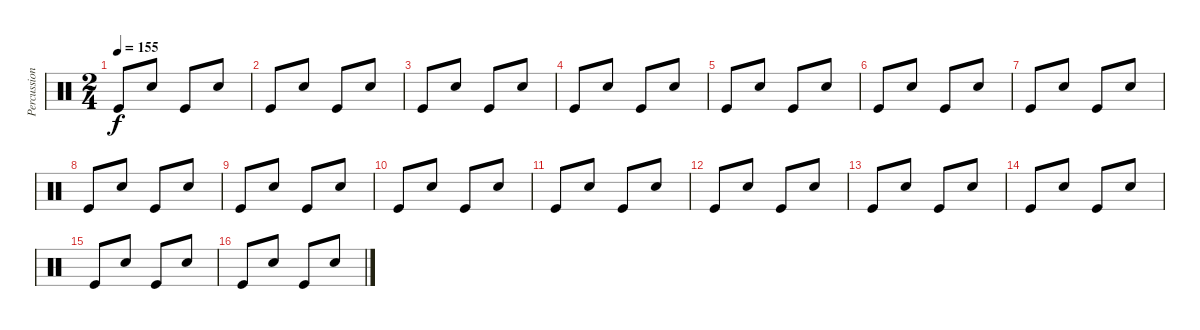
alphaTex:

\track ("Percussions" "Percussion") {instrument percussion}
\staff {score}
\articulation defaults
\ts (2 4)
\tempo 155
\clef neutral
\ks c "Kick (hit)".8{dy f} "Snare (hit) 2".8 "Kick (hit)".8 "Snare (hit) 2".8
|
"Kick (hit)".8 "Snare (hit) 2".8 "Kick (hit)".8 "Snare (hit) 2".8 |
"Kick (hit)".8 "Snare (hit) 2".8 "Kick (hit)".8 "Snare (hit) 2".8 |
"Kick (hit)".8 "Snare (hit) 2".8 "Kick (hit)".8 "Snare (hit) 2".8 |
"Kick (hit)".8 "Snare (hit) 2".8 "Kick (hit)".8 "Snare (hit) 2".8 |
"Kick (hit)".8 "Snare (hit) 2".8 "Kick (hit)".8 "Snare (hit) 2".8 |
"Kick (hit)".8 "Snare (hit) 2".8 "Kick (hit)".8 "Snare (hit) 2".8 |
"Kick (hit)".8 "Snare (hit) 2".8 "Kick (hit)".8 "Snare (hit) 2".8 |
"Kick (hit)".8 "Snare (hit) 2".8 "Kick (hit)".8 "Snare (hit) 2".8 |
"Kick (hit)".8 "Snare (hit) 2".8 "Kick (hit)".8 "Snare (hit) 2".8 |
"Kick (hit)".8 "Snare (hit) 2".8 "Kick (hit)".8 "Snare (hit) 2".8 |
"Kick (hit)".8 "Snare (hit) 2".8 "Kick (hit)".8 "Snare (hit) 2".8 |
"Kick (hit)".8 "Snare (hit) 2".8 "Kick (hit)".8 "Snare (hit) 2".8 |
"Kick (hit)".8 "Snare (hit) 2".8 "Kick (hit)".8 "Snare (hit) 2".8 |
"Kick (hit)".8 "Snare (hit) 2".8 "Kick (hit)".8 "Snare (hit) 2".8 |
"Kick (hit)".8 "Snare (hit) 2".8 "Kick (hit)".8 "Snare (hit) 2".8
